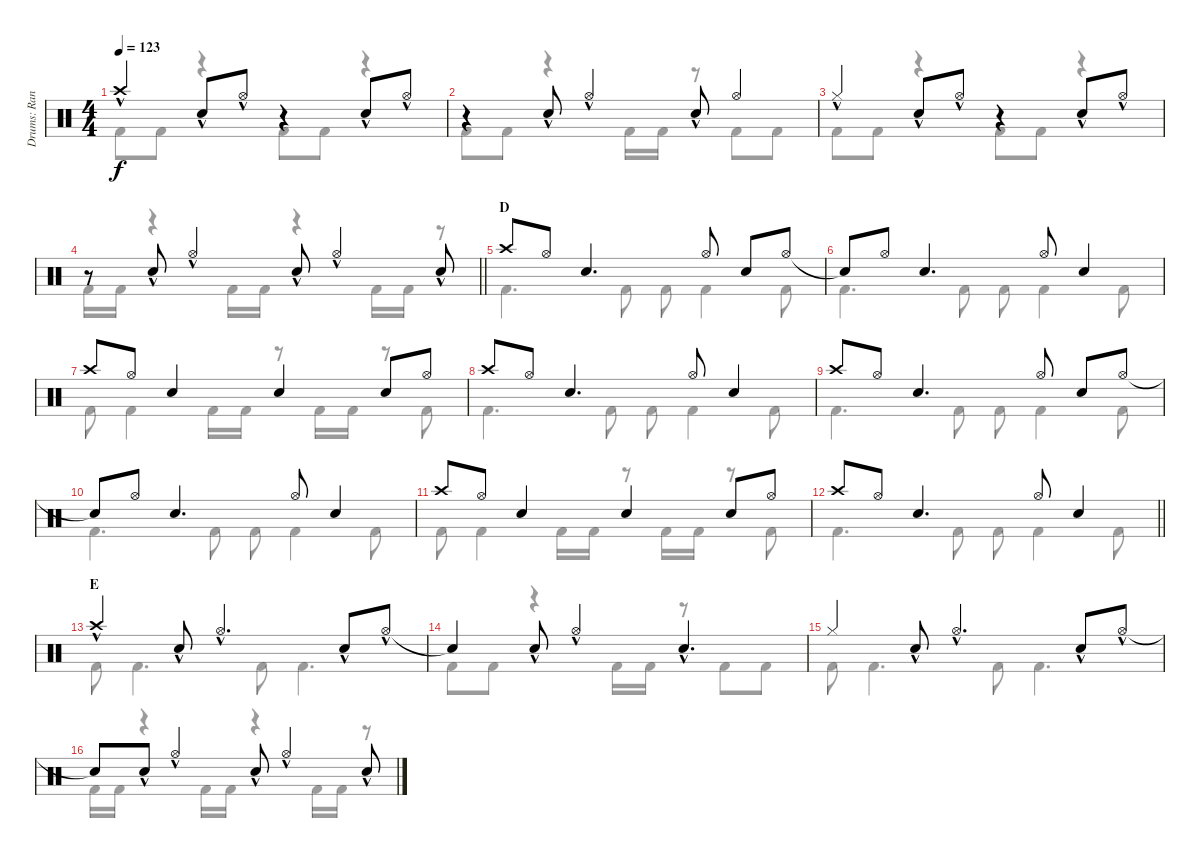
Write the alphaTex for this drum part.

\track ("Drums: Randy" "Drums: Ran") {instrument percussion}
\staff {score}
\articulation defaults
\voice
\ts (4 4)
\tempo 123
\clef neutral
\ks c "Crash high (hit)"{hac}.4{dy f} "Snare (hit) 2"{hac}.8 "Hi-Hat (open)"{hac}.8
r.4 "Snare (hit) 2"{hac}.8 "Hi-Hat (open)"{hac}.8 |
r.4 "Snare (hit) 2"{hac}.8 "Hi-Hat (open)"{hac}.4 "Snare (hit) 2"{hac}.8 "Hi-Hat (open)".4 |
"Hi-Hat (closed)"{hac}.4 "Snare (hit) 2"{hac}.8 "Hi-Hat (open)"{hac}.8 r.4 "Snare (hit) 2"{hac}.8 "Hi-Hat (open)"{hac}.8 |
\barLineRight lightlight
r.8 "Snare (hit) 2"{hac}.8 "Hi-Hat (open)"{hac}.4 "Snare (hit) 2"{hac}.8 "Hi-Hat (open)"{hac}.4 "Snare (hit) 2"{hac}.8 |
\section ("" "D")
"Crash high (hit)".8 "Hi-Hat (open)".8 "Snare (hit) 2".4{d} "Hi-Hat (open)".8 "Snare (hit) 2".8 "Hi-Hat (open)".8 |
"Snare (hit)"{t}.8 "Hi-Hat (open)".8 "Snare (hit) 2".4{d} "Hi-Hat (open)".8 "Snare (hit) 2".4 |
"Crash high (hit)".8 "Hi-Hat (open)".8 "Snare (hit) 2".4 "Snare (hit) 2".4 "Snare (hit) 2".8 "Hi-Hat (open)".8 |
"Crash high (hit)".8 "Hi-Hat (open)".8 "Snare (hit) 2".4{d} "Hi-Hat (open)".8 "Snare (hit) 2".4 |
"Crash high (hit)".8 "Hi-Hat (open)".8 "Snare (hit) 2".4{d} "Hi-Hat (open)".8 "Snare (hit) 2".8 "Hi-Hat (open)".8 |
"Snare (hit)"{t}.8 "Hi-Hat (open)".8 "Snare (hit) 2".4{d} "Hi-Hat (open)".8 "Snare (hit) 2".4 |
"Crash high (hit)".8 "Hi-Hat (open)".8 "Snare (hit) 2".4 "Snare (hit) 2".4 "Snare (hit) 2".8 "Hi-Hat (open)".8 |
\barLineRight lightlight "Crash high (hit)".8 "Hi-Hat (open)".8 "Snare (hit) 2".4{d} "Hi-Hat (open)".8 "Snare (hit) 2".4
|
\section ("" "E")
"Crash high (hit)"{hac}.4 "Snare (hit) 2"{hac}.8 "Hi-Hat (open)"{hac}.4{d} "Snare (hit) 2"{hac}.8 "Hi-Hat (open)"{hac}.8 |
"Snare (hit)"{t}.4 "Snare (hit) 2"{hac}.8 "Hi-Hat (open)"{hac}.4 "Snare (hit) 2"{hac}.4{d} |
"Hi-Hat (closed)".4 "Snare (hit) 2"{hac}.8 "Hi-Hat (open)"{hac}.4{d} "Snare (hit) 2"{hac}.8 "Hi-Hat (open)"{hac}.8 |
"Snare (hit)"{t}.8 "Snare (hit) 2"{hac}.8 "Hi-Hat (open)"{hac}.4 "Snare (hit) 2"{hac}.8 "Hi-Hat (open)"{hac}.4 "Snare (hit) 2"{hac}.8
\voice
\clef neutral
\ottava regular
\simile none
\ks c "Kick (hit) 2".8{dy f} "Kick (hit) 2".8
r.4 "Kick (hit) 2".8 "Kick (hit) 2".8 r.4 |
"Kick (hit) 2".8 "Kick (hit) 2".8 r.4 "Kick (hit) 2".16 "Kick (hit) 2".16 r.8 "Kick (hit) 2".8 "Kick (hit) 2".8 |
"Kick (hit) 2".8 "Kick (hit) 2".8 r.4 "Kick (hit) 2".8 "Kick (hit) 2".8 r.4 |
\barLineRight lightlight "Kick (hit) 2".16 "Kick (hit) 2".16
r.4 "Kick (hit) 2".16 "Kick (hit) 2".16 r.4 "Kick (hit) 2".16 "Kick (hit) 2".16 r.8 |
"Kick (hit) 2".4{d} "Kick (hit) 2".8 "Kick (hit) 2".8 "Kick (hit) 2".4 "Kick (hit) 2".8 |
"Kick (hit) 2".4{d} "Kick (hit) 2".8 "Kick (hit) 2".8 "Kick (hit) 2".4 "Kick (hit) 2".8 |
"Kick (hit) 2".8 "Kick (hit) 2".4 "Kick (hit) 2".16 "Kick (hit) 2".16 r.8 "Kick (hit) 2".16 "Kick (hit) 2".16 r.8 "Kick (hit) 2".8 |
"Kick (hit) 2".4{d} "Kick (hit) 2".8 "Kick (hit) 2".8 "Kick (hit) 2".4 "Kick (hit) 2".8 |
"Kick (hit) 2".4{d} "Kick (hit) 2".8 "Kick (hit) 2".8 "Kick (hit) 2".4 "Kick (hit) 2".8 |
"Kick (hit) 2".4{d} "Kick (hit) 2".8 "Kick (hit) 2".8 "Kick (hit) 2".4 "Kick (hit) 2".8 |
"Kick (hit) 2".8 "Kick (hit) 2".4 "Kick (hit) 2".16 "Kick (hit) 2".16 r.8 "Kick (hit) 2".16 "Kick (hit) 2".16 r.8 "Kick (hit) 2".8 |
\barLineRight lightlight "Kick (hit) 2".4{d} "Kick (hit) 2".8 "Kick (hit) 2".8 "Kick (hit) 2".4 "Kick (hit) 2".8
|
"Kick (hit) 2".8 "Kick (hit) 2".4{d} "Kick (hit) 2".8 "Kick (hit) 2".4{d} |
"Kick (hit) 2".8 "Kick (hit) 2".8 r.4 "Kick (hit) 2".16 "Kick (hit) 2".16 r.8 "Kick (hit) 2".8 "Kick (hit) 2".8 |
"Kick (hit) 2".8 "Kick (hit) 2".4{d} "Kick (hit) 2".8 "Kick (hit) 2".4{d} |
"Kick (hit) 2".16 "Kick (hit) 2".16 r.4 "Kick (hit) 2".16 "Kick (hit) 2".16 r.4 "Kick (hit) 2".16 "Kick (hit) 2".16 r.8
